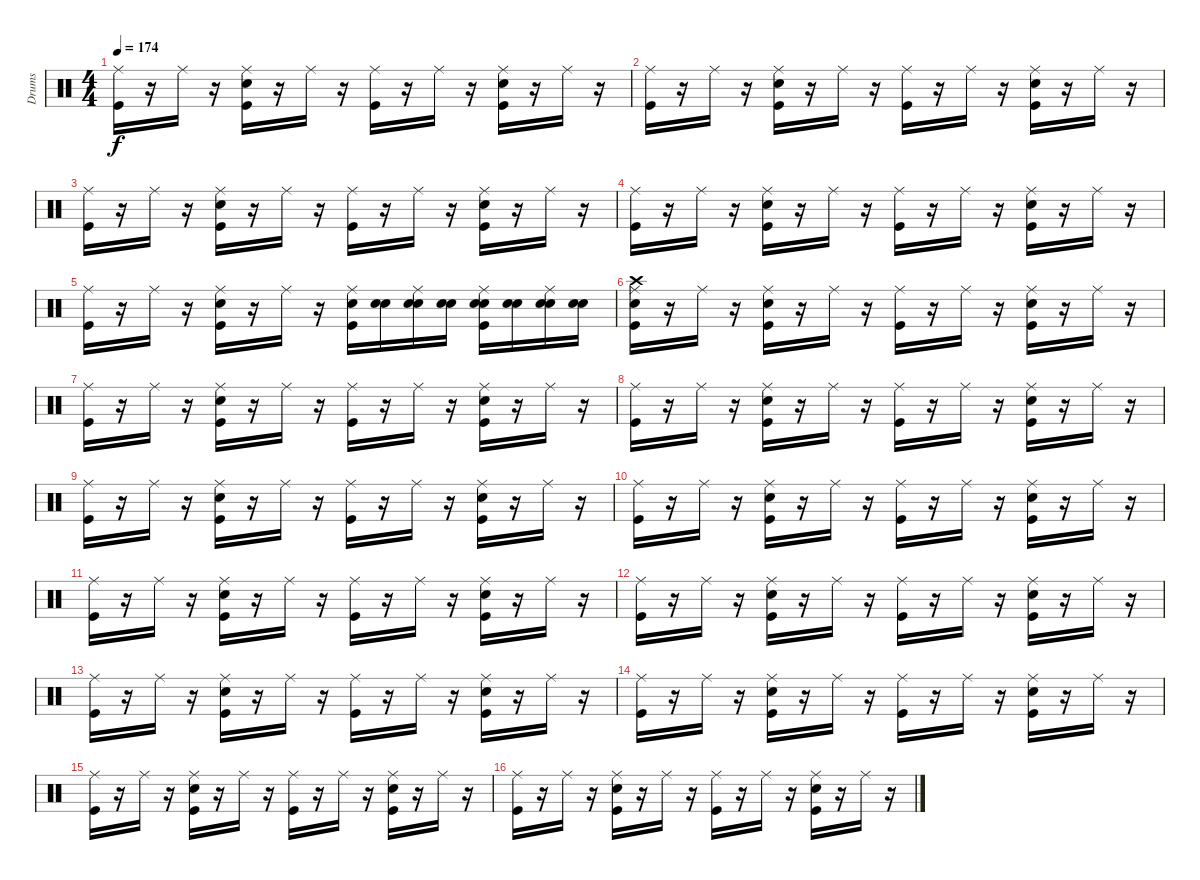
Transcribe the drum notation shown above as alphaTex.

\track ("Drums" "Drums") {instrument percussion}
\staff {score}
\articulation defaults
\ts (4 4)
\tempo 174
\clef neutral
\ks c
("Kick (hit)" "Ride (middle)").16{dy f} r.16 "Ride (middle)".16 r.16 ("Kick (hit)" "Snare (hit) 2" "Ride (middle)").16 r.16 "Ride (middle)".16 r.16 ("Kick (hit)" "Ride (middle)").16 r.16 "Ride (middle)".16 r.16 ("Kick (hit)" "Snare (hit) 2" "Ride (middle)").16 r.16 "Ride (middle)".16 r.16 |
("Kick (hit)" "Ride (middle)").16 r.16 "Ride (middle)".16 r.16 ("Kick (hit)" "Snare (hit) 2" "Ride (middle)").16 r.16 "Ride (middle)".16 r.16 ("Kick (hit)" "Ride (middle)").16 r.16 "Ride (middle)".16 r.16 ("Kick (hit)" "Snare (hit) 2" "Ride (middle)").16 r.16 "Ride (middle)".16 r.16 |
("Kick (hit)" "Ride (middle)").16 r.16 "Ride (middle)".16 r.16 ("Kick (hit)" "Snare (hit) 2" "Ride (middle)").16 r.16 "Ride (middle)".16 r.16 ("Kick (hit)" "Ride (middle)").16 r.16 "Ride (middle)".16 r.16 ("Kick (hit)" "Snare (hit) 2" "Ride (middle)").16 r.16 "Ride (middle)".16 r.16 |
("Kick (hit)" "Ride (middle)").16 r.16 "Ride (middle)".16 r.16 ("Kick (hit)" "Snare (hit) 2" "Ride (middle)").16 r.16 "Ride (middle)".16 r.16 ("Kick (hit)" "Ride (middle)").16 r.16 "Ride (middle)".16 r.16 ("Kick (hit)" "Snare (hit) 2" "Ride (middle)").16 r.16 "Ride (middle)".16 r.16 |
("Kick (hit)" "Ride (middle)").16 r.16 "Ride (middle)".16 r.16 ("Snare (hit) 2" "Kick (hit)" "Ride (middle)").16 r.16 "Ride (middle)".16 r.16 ("Snare (hit) 2" "Kick (hit)" "Ride (middle)").16 ("Snare (hit)" "Snare (hit) 2").16 ("Snare (hit)" "Snare (hit) 2" "Ride (middle)").16 ("Snare (hit)" "Snare (hit) 2").16 ("Snare (hit)" "Snare (hit) 2" "Kick (hit)" "Ride (middle)").16 ("Snare (hit)" "Snare (hit) 2").16 ("Snare (hit)" "Snare (hit) 2" "Ride (middle)").16 ("Snare (hit)" "Snare (hit) 2").16 |
("Snare (hit)" "Crash high (hit)" "Kick (hit)" "Ride (middle)").16 r.16 "Ride (middle)".16 r.16 ("Kick (hit)" "Snare (hit) 2" "Ride (middle)").16 r.16 "Ride (middle)".16 r.16 ("Kick (hit)" "Ride (middle)").16 r.16 "Ride (middle)".16 r.16 ("Kick (hit)" "Snare (hit) 2" "Ride (middle)").16 r.16 "Ride (middle)".16 r.16 |
("Kick (hit)" "Ride (middle)").16 r.16 "Ride (middle)".16 r.16 ("Kick (hit)" "Snare (hit) 2" "Ride (middle)").16 r.16 "Ride (middle)".16 r.16 ("Kick (hit)" "Ride (middle)").16 r.16 "Ride (middle)".16 r.16 ("Kick (hit)" "Snare (hit) 2" "Ride (middle)").16 r.16 "Ride (middle)".16 r.16 |
("Kick (hit)" "Ride (middle)").16 r.16 "Ride (middle)".16 r.16 ("Kick (hit)" "Snare (hit) 2" "Ride (middle)").16 r.16 "Ride (middle)".16 r.16 ("Kick (hit)" "Ride (middle)").16 r.16 "Ride (middle)".16 r.16 ("Kick (hit)" "Snare (hit) 2" "Ride (middle)").16 r.16 "Ride (middle)".16 r.16 |
("Kick (hit)" "Ride (middle)").16 r.16 "Ride (middle)".16 r.16 ("Kick (hit)" "Snare (hit) 2" "Ride (middle)").16 r.16 "Ride (middle)".16 r.16 ("Kick (hit)" "Ride (middle)").16 r.16 "Ride (middle)".16 r.16 ("Kick (hit)" "Snare (hit) 2" "Ride (middle)").16 r.16 "Ride (middle)".16 r.16 |
("Kick (hit)" "Ride (middle)").16 r.16 "Ride (middle)".16 r.16 ("Kick (hit)" "Snare (hit) 2" "Ride (middle)").16 r.16 "Ride (middle)".16 r.16 ("Kick (hit)" "Ride (middle)").16 r.16 "Ride (middle)".16 r.16 ("Kick (hit)" "Snare (hit) 2" "Ride (middle)").16 r.16 "Ride (middle)".16 r.16 |
("Kick (hit)" "Ride (middle)").16 r.16 "Ride (middle)".16 r.16 ("Kick (hit)" "Snare (hit) 2" "Ride (middle)").16 r.16 "Ride (middle)".16 r.16 ("Kick (hit)" "Ride (middle)").16 r.16 "Ride (middle)".16 r.16 ("Kick (hit)" "Snare (hit) 2" "Ride (middle)").16 r.16 "Ride (middle)".16 r.16 |
("Kick (hit)" "Ride (middle)").16 r.16 "Ride (middle)".16 r.16 ("Kick (hit)" "Snare (hit) 2" "Ride (middle)").16 r.16 "Ride (middle)".16 r.16 ("Kick (hit)" "Ride (middle)").16 r.16 "Ride (middle)".16 r.16 ("Kick (hit)" "Snare (hit) 2" "Ride (middle)").16 r.16 "Ride (middle)".16 r.16 |
("Kick (hit)" "Ride (middle)").16 r.16 "Ride (middle)".16 r.16 ("Kick (hit)" "Snare (hit) 2" "Ride (middle)").16 r.16 "Ride (middle)".16 r.16 ("Kick (hit)" "Ride (middle)").16 r.16 "Ride (middle)".16 r.16 ("Kick (hit)" "Snare (hit) 2" "Ride (middle)").16 r.16 "Ride (middle)".16 r.16 |
("Kick (hit)" "Ride (middle)").16 r.16 "Ride (middle)".16 r.16 ("Kick (hit)" "Snare (hit) 2" "Ride (middle)").16 r.16 "Ride (middle)".16 r.16 ("Kick (hit)" "Ride (middle)").16 r.16 "Ride (middle)".16 r.16 ("Kick (hit)" "Snare (hit) 2" "Ride (middle)").16 r.16 "Ride (middle)".16 r.16 |
("Kick (hit)" "Ride (middle)").16 r.16 "Ride (middle)".16 r.16 ("Kick (hit)" "Snare (hit) 2" "Ride (middle)").16 r.16 "Ride (middle)".16 r.16 ("Kick (hit)" "Ride (middle)").16 r.16 "Ride (middle)".16 r.16 ("Kick (hit)" "Snare (hit) 2" "Ride (middle)").16 r.16 "Ride (middle)".16 r.16 |
("Kick (hit)" "Ride (middle)").16 r.16 "Ride (middle)".16 r.16 ("Kick (hit)" "Snare (hit) 2" "Ride (middle)").16 r.16 "Ride (middle)".16 r.16 ("Kick (hit)" "Ride (middle)").16 r.16 "Ride (middle)".16 r.16 ("Kick (hit)" "Snare (hit) 2" "Ride (middle)").16 r.16 "Ride (middle)".16 r.16
